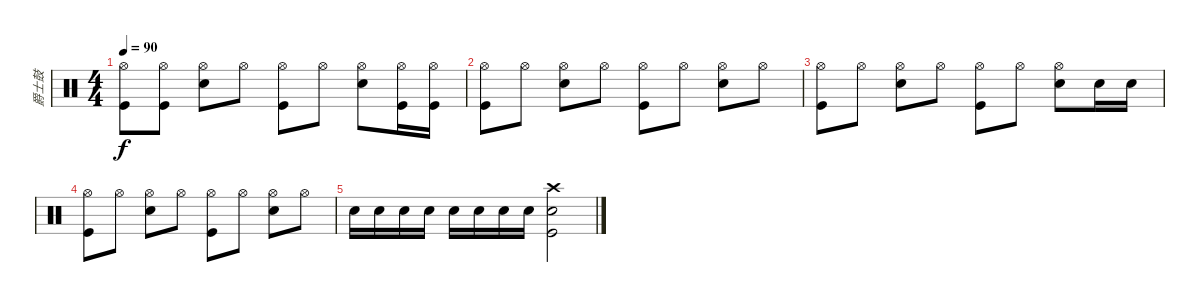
\track ("爵士鼓" "爵士鼓") {instrument percussion}
\staff {score}
\articulation defaults
\ts (4 4)
\tempo 90
\clef neutral
\ks c
("Hi-Hat (open)" "Kick (hit)").8{dy f} ("Hi-Hat (open)" "Kick (hit)").8 ("Hi-Hat (open)" "Snare (hit) 2").8 "Hi-Hat (open)".8 ("Hi-Hat (open)" "Kick (hit)").8 "Hi-Hat (open)".8 ("Hi-Hat (open)" "Snare (hit) 2").8 ("Hi-Hat (open)" "Kick (hit)").16 ("Hi-Hat (open)" "Kick (hit)").16 |
("Hi-Hat (open)" "Kick (hit)").8 "Hi-Hat (open)".8 ("Hi-Hat (open)" "Snare (hit) 2").8 "Hi-Hat (open)".8 ("Hi-Hat (open)" "Kick (hit)").8 "Hi-Hat (open)".8 ("Hi-Hat (open)" "Snare (hit) 2").8 "Hi-Hat (open)".8 |
("Hi-Hat (open)" "Kick (hit)").8 "Hi-Hat (open)".8 ("Hi-Hat (open)" "Snare (hit) 2").8 "Hi-Hat (open)".8 ("Hi-Hat (open)" "Kick (hit)").8 "Hi-Hat (open)".8 ("Hi-Hat (open)" "Snare (hit) 2").8 "Snare (hit) 2".16 "Snare (hit) 2".16 |
("Hi-Hat (open)" "Kick (hit)").8 "Hi-Hat (open)".8 ("Hi-Hat (open)" "Snare (hit) 2").8 "Hi-Hat (open)".8 ("Hi-Hat (open)" "Kick (hit)").8 "Hi-Hat (open)".8 ("Hi-Hat (open)" "Snare (hit) 2").8 "Hi-Hat (open)".8 |
"Snare (hit) 2".16 "Snare (hit) 2".16 "Snare (hit) 2".16 "Snare (hit) 2".16 "Snare (hit) 2".16 "Snare (hit) 2".16 "Snare (hit) 2".16 "Snare (hit) 2".16 ("Crash high (hit)" "Snare (hit) 2" "Kick (hit)").2
